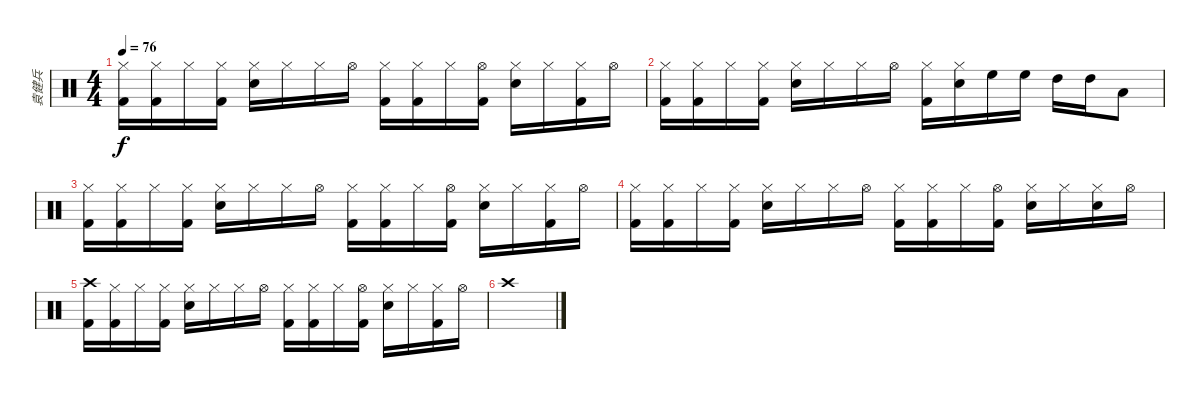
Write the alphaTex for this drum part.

\track ("袁健兵" "袁健兵") {instrument percussion}
\staff {score}
\articulation defaults
\ts (4 4)
\tempo 76
\clef neutral
\ks c
("Hi-Hat (closed)" "Kick (hit) 2").16{dy f} ("Hi-Hat (closed)" "Kick (hit) 2").16 "Hi-Hat (closed)".16 ("Hi-Hat (closed)" "Kick (hit) 2").16 ("Hi-Hat (closed)" "Snare (hit) 2").16 "Hi-Hat (closed)".16 "Hi-Hat (closed)".16 "Hi-Hat (open)".16 ("Hi-Hat (closed)" "Kick (hit) 2").16 ("Hi-Hat (closed)" "Kick (hit) 2").16 "Hi-Hat (closed)".16 ("Hi-Hat (open)" "Kick (hit) 2").16 ("Hi-Hat (closed)" "Snare (hit) 2").16 "Hi-Hat (closed)".16 ("Hi-Hat (closed)" "Kick (hit) 2").16 "Hi-Hat (open)".16 |
("Hi-Hat (closed)" "Kick (hit) 2").16 ("Hi-Hat (closed)" "Kick (hit) 2").16 "Hi-Hat (closed)".16 ("Hi-Hat (closed)" "Kick (hit) 2").16 ("Hi-Hat (closed)" "Snare (hit) 2").16 "Hi-Hat (closed)".16 "Hi-Hat (closed)".16 "Hi-Hat (open)".16 ("Hi-Hat (closed)" "Kick (hit) 2").16 ("Hi-Hat (closed)" "Snare (hit) 2").16 "High Floor Tom (hit)".16 "High Floor Tom (hit)".16 "High Tom (hit)".16 "High Tom (hit)".16 "Low Tom (hit)".8 |
("Hi-Hat (closed)" "Kick (hit) 2").16 ("Hi-Hat (closed)" "Kick (hit) 2").16 "Hi-Hat (closed)".16 ("Hi-Hat (closed)" "Kick (hit) 2").16 ("Hi-Hat (closed)" "Snare (hit) 2").16 "Hi-Hat (closed)".16 "Hi-Hat (closed)".16 "Hi-Hat (open)".16 ("Hi-Hat (closed)" "Kick (hit) 2").16 ("Hi-Hat (closed)" "Kick (hit) 2").16 "Hi-Hat (closed)".16 ("Hi-Hat (open)" "Kick (hit) 2").16 ("Hi-Hat (closed)" "Snare (hit) 2").16 "Hi-Hat (closed)".16 ("Hi-Hat (closed)" "Kick (hit) 2").16 "Hi-Hat (open)".16 |
("Hi-Hat (closed)" "Kick (hit) 2").16 ("Hi-Hat (closed)" "Kick (hit) 2").16 "Hi-Hat (closed)".16 ("Hi-Hat (closed)" "Kick (hit) 2").16 ("Hi-Hat (closed)" "Snare (hit) 2").16 "Hi-Hat (closed)".16 "Hi-Hat (closed)".16 "Hi-Hat (open)".16 ("Hi-Hat (closed)" "Kick (hit) 2").16 ("Hi-Hat (closed)" "Kick (hit) 2").16 "Hi-Hat (closed)".16 ("Hi-Hat (open)" "Kick (hit) 2").16 ("Hi-Hat (closed)" "Snare (hit) 2").16 "Hi-Hat (closed)".16 ("Hi-Hat (closed)" "Snare (hit) 2").16 "Hi-Hat (open)".16 |
("Crash high (hit)" "Kick (hit) 2").16 ("Hi-Hat (closed)" "Kick (hit) 2").16 "Hi-Hat (closed)".16 ("Hi-Hat (closed)" "Kick (hit) 2").16 ("Hi-Hat (closed)" "Snare (hit) 2").16 "Hi-Hat (closed)".16 "Hi-Hat (closed)".16 "Hi-Hat (open)".16 ("Hi-Hat (closed)" "Kick (hit) 2").16 ("Hi-Hat (closed)" "Kick (hit) 2").16 "Hi-Hat (closed)".16 ("Hi-Hat (open)" "Kick (hit) 2").16 ("Hi-Hat (closed)" "Snare (hit) 2").16 "Hi-Hat (closed)".16 ("Hi-Hat (closed)" "Kick (hit) 2").16 "Hi-Hat (open)".16 |
"Crash high (hit)".1
